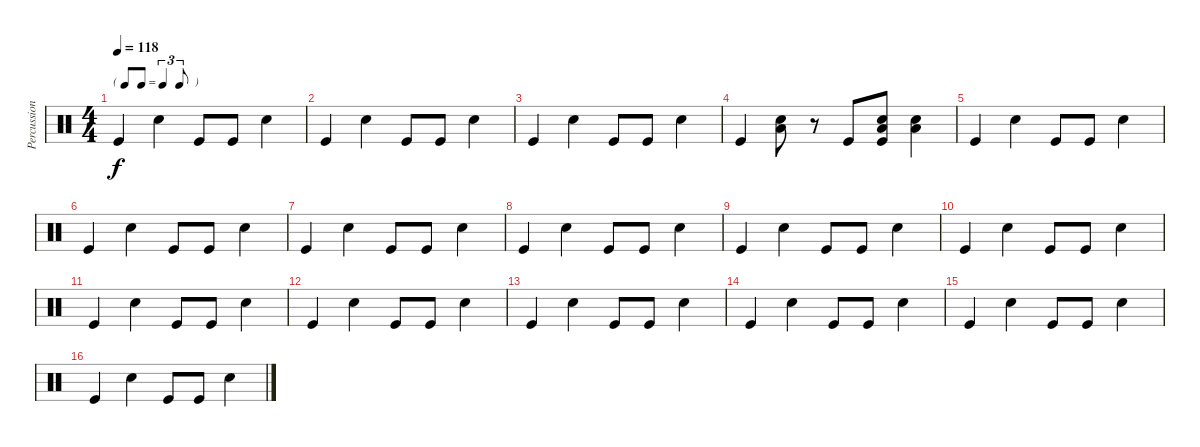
\track ("Percussion" "Percussion") {instrument percussion}
\staff {score}
\articulation defaults
\ts (4 4)
\tf triplet8th
\tempo 118
\clef neutral
\ks c "Kick (hit)".4{dy f} "Snare (hit) 2".4 "Kick (hit)".8 "Kick (hit)".8 "Snare (hit) 2".4
|
"Kick (hit)".4 "Snare (hit) 2".4 "Kick (hit)".8 "Kick (hit)".8 "Snare (hit) 2".4 |
"Kick (hit)".4 "Snare (hit) 2".4 "Kick (hit)".8 "Kick (hit)".8 "Snare (hit) 2".4 |
"Kick (hit)".4 ("Low Tom (hit)" "Snare (hit) 2").8 r.8 "Kick (hit)".8 ("Low Tom (hit)" "Snare (hit) 2" "Kick (hit)").8 ("Low Tom (hit)" "Snare (hit) 2").4 |
"Kick (hit)".4 "Snare (hit) 2".4 "Kick (hit)".8 "Kick (hit)".8 "Snare (hit) 2".4 |
"Kick (hit)".4 "Snare (hit) 2".4 "Kick (hit)".8 "Kick (hit)".8 "Snare (hit) 2".4 |
"Kick (hit)".4 "Snare (hit) 2".4 "Kick (hit)".8 "Kick (hit)".8 "Snare (hit) 2".4 |
"Kick (hit)".4 "Snare (hit) 2".4 "Kick (hit)".8 "Kick (hit)".8 "Snare (hit) 2".4 |
"Kick (hit)".4 "Snare (hit) 2".4 "Kick (hit)".8 "Kick (hit)".8 "Snare (hit) 2".4 |
"Kick (hit)".4 "Snare (hit) 2".4 "Kick (hit)".8 "Kick (hit)".8 "Snare (hit) 2".4 |
"Kick (hit)".4 "Snare (hit) 2".4 "Kick (hit)".8 "Kick (hit)".8 "Snare (hit) 2".4 |
"Kick (hit)".4 "Snare (hit) 2".4 "Kick (hit)".8 "Kick (hit)".8 "Snare (hit) 2".4 |
"Kick (hit)".4 "Snare (hit) 2".4 "Kick (hit)".8 "Kick (hit)".8 "Snare (hit) 2".4 |
"Kick (hit)".4 "Snare (hit) 2".4 "Kick (hit)".8 "Kick (hit)".8 "Snare (hit) 2".4 |
"Kick (hit)".4 "Snare (hit) 2".4 "Kick (hit)".8 "Kick (hit)".8 "Snare (hit) 2".4 |
"Kick (hit)".4 "Snare (hit) 2".4 "Kick (hit)".8 "Kick (hit)".8 "Snare (hit) 2".4
